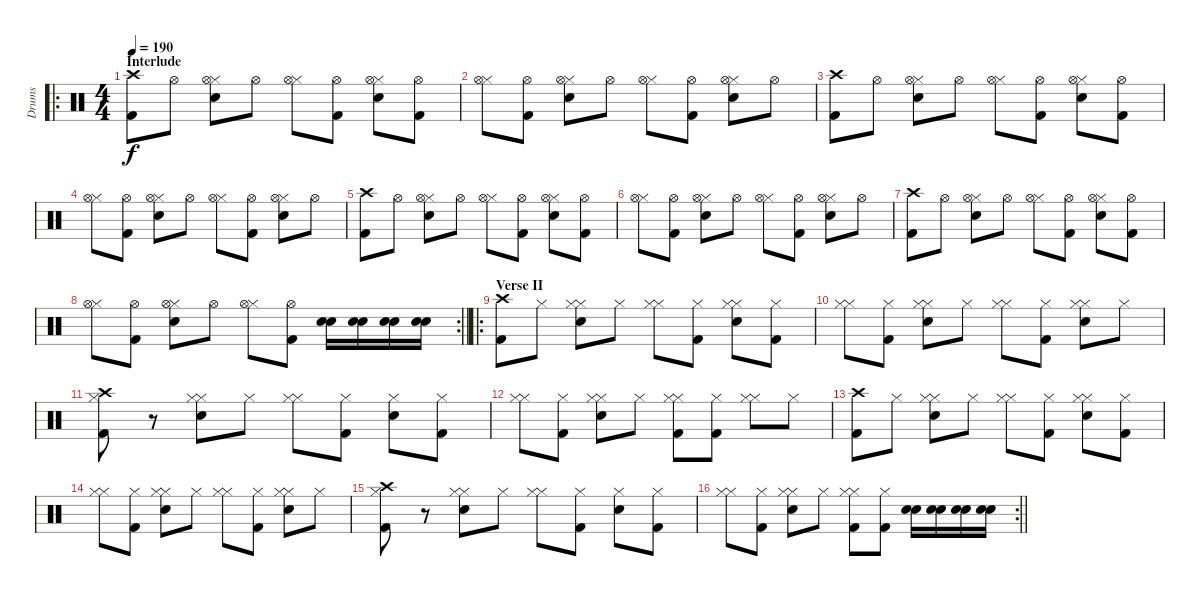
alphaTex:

\track ("Drums" "Drums") {instrument percussion}
\staff {score}
\articulation defaults
\ro
\ts (4 4)
\section ("" "Interlude")
\tempo 190
\clef neutral
\ks c
("Crash high (hit)" "Kick (hit) 2").8{dy f} "Hi-Hat (open)".8 ("Hi-Hat (closed)" "Snare (hit) 2" "Hi-Hat (open)").8 "Hi-Hat (open)".8 ("Hi-Hat (closed)" "Hi-Hat (open)").8 ("Kick (hit) 2" "Hi-Hat (open)").8 ("Hi-Hat (closed)" "Snare (hit) 2" "Hi-Hat (open)").8 ("Kick (hit) 2" "Hi-Hat (open)").8 |
("Hi-Hat (closed)" "Hi-Hat (open)").8 ("Kick (hit) 2" "Hi-Hat (open)").8 ("Hi-Hat (closed)" "Snare (hit) 2" "Hi-Hat (open)").8 "Hi-Hat (open)".8 ("Hi-Hat (closed)" "Hi-Hat (open)").8 ("Kick (hit) 2" "Hi-Hat (open)").8 ("Hi-Hat (closed)" "Snare (hit) 2" "Hi-Hat (open)").8 "Hi-Hat (open)".8 |
("Crash high (hit)" "Kick (hit) 2").8 "Hi-Hat (open)".8 ("Hi-Hat (closed)" "Snare (hit) 2" "Hi-Hat (open)").8 "Hi-Hat (open)".8 ("Hi-Hat (closed)" "Hi-Hat (open)").8 ("Kick (hit) 2" "Hi-Hat (open)").8 ("Hi-Hat (closed)" "Snare (hit) 2" "Hi-Hat (open)").8 ("Kick (hit) 2" "Hi-Hat (open)").8 |
("Hi-Hat (closed)" "Hi-Hat (open)").8 ("Kick (hit) 2" "Hi-Hat (open)").8 ("Hi-Hat (closed)" "Snare (hit) 2" "Hi-Hat (open)").8 "Hi-Hat (open)".8 ("Hi-Hat (closed)" "Hi-Hat (open)").8 ("Kick (hit) 2" "Hi-Hat (open)").8 ("Hi-Hat (closed)" "Snare (hit) 2" "Hi-Hat (open)").8 "Hi-Hat (open)".8 |
("Crash high (hit)" "Kick (hit) 2").8 "Hi-Hat (open)".8 ("Hi-Hat (closed)" "Snare (hit) 2" "Hi-Hat (open)").8 "Hi-Hat (open)".8 ("Hi-Hat (closed)" "Hi-Hat (open)").8 ("Kick (hit) 2" "Hi-Hat (open)").8 ("Hi-Hat (closed)" "Snare (hit) 2" "Hi-Hat (open)").8 ("Kick (hit) 2" "Hi-Hat (open)").8 |
("Hi-Hat (closed)" "Hi-Hat (open)").8 ("Kick (hit) 2" "Hi-Hat (open)").8 ("Hi-Hat (closed)" "Snare (hit) 2" "Hi-Hat (open)").8 "Hi-Hat (open)".8 ("Hi-Hat (closed)" "Hi-Hat (open)").8 ("Kick (hit) 2" "Hi-Hat (open)").8 ("Hi-Hat (closed)" "Snare (hit) 2" "Hi-Hat (open)").8 "Hi-Hat (open)".8 |
("Crash high (hit)" "Kick (hit) 2").8 "Hi-Hat (open)".8 ("Hi-Hat (closed)" "Snare (hit) 2" "Hi-Hat (open)").8 "Hi-Hat (open)".8 ("Hi-Hat (closed)" "Hi-Hat (open)").8 ("Kick (hit) 2" "Hi-Hat (open)").8 ("Hi-Hat (closed)" "Snare (hit) 2" "Hi-Hat (open)").8 ("Kick (hit) 2" "Hi-Hat (open)").8 |
\rc 2
\barLineRight lightlight
("Hi-Hat (closed)" "Hi-Hat (open)").8 ("Kick (hit) 2" "Hi-Hat (open)").8 ("Hi-Hat (closed)" "Snare (hit) 2" "Hi-Hat (open)").8 "Hi-Hat (open)".8 ("Hi-Hat (closed)" "Hi-Hat (open)").8 ("Kick (hit) 2" "Hi-Hat (open)").8 ("Snare (hit) 2" "Electric Snare (hit)").16 ("Snare (hit) 2" "Electric Snare (hit)").16 ("Snare (hit) 2" "Electric Snare (hit)").16 ("Snare (hit) 2" "Electric Snare (hit)").16 |
\ro
\section ("" "Verse II")
("Crash high (hit)" "Kick (hit) 2").8 "Hi-Hat (closed)".8 ("Hi-Hat (closed)" "Snare (hit) 2" "Hi-Hat (closed)").8 "Hi-Hat (closed)".8 ("Hi-Hat (closed)" "Hi-Hat (closed)").8 ("Kick (hit) 2" "Hi-Hat (closed)").8 ("Hi-Hat (closed)" "Snare (hit) 2" "Hi-Hat (closed)").8 ("Kick (hit) 2" "Hi-Hat (closed)").8 |
("Hi-Hat (closed)" "Hi-Hat (closed)").8 ("Kick (hit) 2" "Hi-Hat (closed)").8 ("Hi-Hat (closed)" "Snare (hit) 2" "Hi-Hat (closed)").8 "Hi-Hat (closed)".8 ("Hi-Hat (closed)" "Hi-Hat (closed)").8 ("Kick (hit) 2" "Hi-Hat (closed)").8 ("Hi-Hat (closed)" "Snare (hit) 2" "Hi-Hat (closed)").8 "Hi-Hat (closed)".8 |
("Hi-Hat (closed)" "Kick (hit) 2" "Crash high (hit)").8 r.8 ("Hi-Hat (closed)" "Snare (hit) 2" "Hi-Hat (closed)").8 "Hi-Hat (closed)".8 ("Hi-Hat (closed)" "Hi-Hat (closed)").8 ("Kick (hit) 2" "Hi-Hat (closed)").8 ("Snare (hit) 2" "Hi-Hat (closed)").8 ("Kick (hit) 2" "Hi-Hat (closed)").8 |
("Hi-Hat (closed)" "Hi-Hat (closed)").8 ("Kick (hit) 2" "Hi-Hat (closed)").8 ("Hi-Hat (closed)" "Snare (hit) 2" "Hi-Hat (closed)").8 "Hi-Hat (closed)".8 ("Hi-Hat (closed)" "Kick (hit) 2" "Hi-Hat (closed)").8 ("Kick (hit) 2" "Hi-Hat (closed)").8 ("Hi-Hat (closed)" "Hi-Hat (closed)").8 "Hi-Hat (closed)".8 |
("Crash high (hit)" "Kick (hit) 2").8 "Hi-Hat (closed)".8 ("Hi-Hat (closed)" "Snare (hit) 2" "Hi-Hat (closed)").8 "Hi-Hat (closed)".8 ("Hi-Hat (closed)" "Hi-Hat (closed)").8 ("Kick (hit) 2" "Hi-Hat (closed)").8 ("Hi-Hat (closed)" "Snare (hit) 2" "Hi-Hat (closed)").8 ("Kick (hit) 2" "Hi-Hat (closed)").8 |
("Hi-Hat (closed)" "Hi-Hat (closed)").8 ("Kick (hit) 2" "Hi-Hat (closed)").8 ("Hi-Hat (closed)" "Snare (hit) 2" "Hi-Hat (closed)").8 "Hi-Hat (closed)".8 ("Hi-Hat (closed)" "Hi-Hat (closed)").8 ("Kick (hit) 2" "Hi-Hat (closed)").8 ("Hi-Hat (closed)" "Snare (hit) 2" "Hi-Hat (closed)").8 "Hi-Hat (closed)".8 |
("Hi-Hat (closed)" "Kick (hit) 2" "Crash high (hit)").8 r.8 ("Hi-Hat (closed)" "Snare (hit) 2" "Hi-Hat (closed)").8 "Hi-Hat (closed)".8 ("Hi-Hat (closed)" "Hi-Hat (closed)").8 ("Kick (hit) 2" "Hi-Hat (closed)").8 ("Snare (hit) 2" "Hi-Hat (closed)").8 ("Kick (hit) 2" "Hi-Hat (closed)").8 |
\rc 2
\barLineRight lightlight
("Hi-Hat (closed)" "Hi-Hat (closed)").8 ("Kick (hit) 2" "Hi-Hat (closed)").8 ("Hi-Hat (closed)" "Snare (hit) 2" "Hi-Hat (closed)").8 "Hi-Hat (closed)".8 ("Hi-Hat (closed)" "Kick (hit) 2" "Hi-Hat (closed)").8 ("Kick (hit) 2" "Hi-Hat (closed)").8 ("Snare (hit) 2" "Electric Snare (hit)").16 ("Snare (hit) 2" "Electric Snare (hit)").16 ("Snare (hit) 2" "Electric Snare (hit)").16 ("Snare (hit) 2" "Electric Snare (hit)").16
